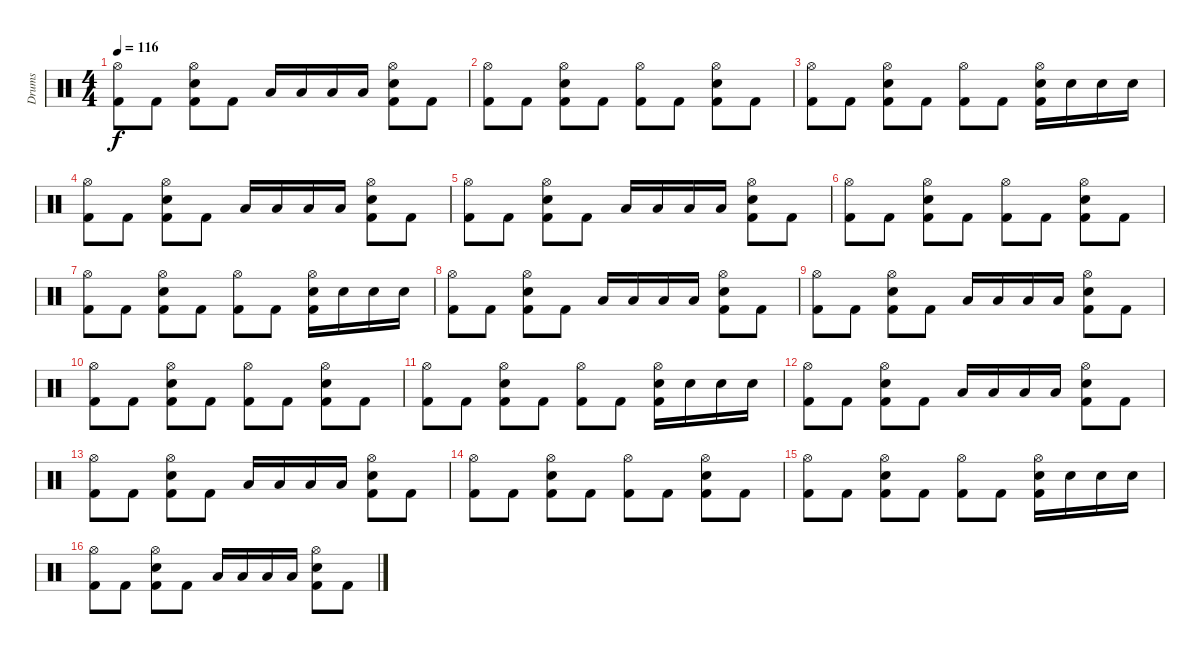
\track ("Drums" "Drums") {instrument percussion}
\staff {score}
\articulation defaults
\ts (4 4)
\tempo 116
\clef neutral
\ks c
("Hi-Hat (open)" "Kick (hit) 2").8{dy f} "Kick (hit) 2".8 ("Hi-Hat (open)" "Electric Snare (hit)" "Kick (hit) 2").8 "Kick (hit) 2".8 "Low Floor Tom (hit)".16 "Low Floor Tom (hit)".16 "Low Floor Tom (hit)".16 "Low Floor Tom (hit)".16 ("Hi-Hat (open)" "Electric Snare (hit)" "Kick (hit) 2").8 "Kick (hit) 2".8 |
("Hi-Hat (open)" "Kick (hit) 2").8 "Kick (hit) 2".8 ("Hi-Hat (open)" "Electric Snare (hit)" "Kick (hit) 2").8 "Kick (hit) 2".8 ("Hi-Hat (open)" "Kick (hit) 2").8 "Kick (hit) 2".8 ("Hi-Hat (open)" "Electric Snare (hit)" "Kick (hit) 2").8 "Kick (hit) 2".8 |
("Hi-Hat (open)" "Kick (hit) 2").8 "Kick (hit) 2".8 ("Hi-Hat (open)" "Electric Snare (hit)" "Kick (hit) 2").8 "Kick (hit) 2".8 ("Hi-Hat (open)" "Kick (hit) 2").8 "Kick (hit) 2".8 ("Hi-Hat (open)" "Electric Snare (hit)" "Kick (hit) 2").16 "Electric Snare (hit)".16 "Electric Snare (hit)".16 "Electric Snare (hit)".16 |
("Hi-Hat (open)" "Kick (hit) 2").8 "Kick (hit) 2".8 ("Hi-Hat (open)" "Electric Snare (hit)" "Kick (hit) 2").8 "Kick (hit) 2".8 "Low Floor Tom (hit)".16 "Low Floor Tom (hit)".16 "Low Floor Tom (hit)".16 "Low Floor Tom (hit)".16 ("Hi-Hat (open)" "Electric Snare (hit)" "Kick (hit) 2").8 "Kick (hit) 2".8 |
("Hi-Hat (open)" "Kick (hit) 2").8 "Kick (hit) 2".8 ("Hi-Hat (open)" "Electric Snare (hit)" "Kick (hit) 2").8 "Kick (hit) 2".8 "Low Floor Tom (hit)".16 "Low Floor Tom (hit)".16 "Low Floor Tom (hit)".16 "Low Floor Tom (hit)".16 ("Hi-Hat (open)" "Electric Snare (hit)" "Kick (hit) 2").8 "Kick (hit) 2".8 |
("Hi-Hat (open)" "Kick (hit) 2").8 "Kick (hit) 2".8 ("Hi-Hat (open)" "Electric Snare (hit)" "Kick (hit) 2").8 "Kick (hit) 2".8 ("Hi-Hat (open)" "Kick (hit) 2").8 "Kick (hit) 2".8 ("Hi-Hat (open)" "Electric Snare (hit)" "Kick (hit) 2").8 "Kick (hit) 2".8 |
("Hi-Hat (open)" "Kick (hit) 2").8 "Kick (hit) 2".8 ("Hi-Hat (open)" "Electric Snare (hit)" "Kick (hit) 2").8 "Kick (hit) 2".8 ("Hi-Hat (open)" "Kick (hit) 2").8 "Kick (hit) 2".8 ("Hi-Hat (open)" "Electric Snare (hit)" "Kick (hit) 2").16 "Electric Snare (hit)".16 "Electric Snare (hit)".16 "Electric Snare (hit)".16 |
("Hi-Hat (open)" "Kick (hit) 2").8 "Kick (hit) 2".8 ("Hi-Hat (open)" "Electric Snare (hit)" "Kick (hit) 2").8 "Kick (hit) 2".8 "Low Floor Tom (hit)".16 "Low Floor Tom (hit)".16 "Low Floor Tom (hit)".16 "Low Floor Tom (hit)".16 ("Hi-Hat (open)" "Electric Snare (hit)" "Kick (hit) 2").8 "Kick (hit) 2".8 |
("Hi-Hat (open)" "Kick (hit) 2").8 "Kick (hit) 2".8 ("Hi-Hat (open)" "Electric Snare (hit)" "Kick (hit) 2").8 "Kick (hit) 2".8 "Low Floor Tom (hit)".16 "Low Floor Tom (hit)".16 "Low Floor Tom (hit)".16 "Low Floor Tom (hit)".16 ("Hi-Hat (open)" "Electric Snare (hit)" "Kick (hit) 2").8 "Kick (hit) 2".8 |
("Hi-Hat (open)" "Kick (hit) 2").8 "Kick (hit) 2".8 ("Hi-Hat (open)" "Electric Snare (hit)" "Kick (hit) 2").8 "Kick (hit) 2".8 ("Hi-Hat (open)" "Kick (hit) 2").8 "Kick (hit) 2".8 ("Hi-Hat (open)" "Electric Snare (hit)" "Kick (hit) 2").8 "Kick (hit) 2".8 |
("Hi-Hat (open)" "Kick (hit) 2").8 "Kick (hit) 2".8 ("Hi-Hat (open)" "Electric Snare (hit)" "Kick (hit) 2").8 "Kick (hit) 2".8 ("Hi-Hat (open)" "Kick (hit) 2").8 "Kick (hit) 2".8 ("Hi-Hat (open)" "Electric Snare (hit)" "Kick (hit) 2").16 "Electric Snare (hit)".16 "Electric Snare (hit)".16 "Electric Snare (hit)".16 |
("Hi-Hat (open)" "Kick (hit) 2").8 "Kick (hit) 2".8 ("Hi-Hat (open)" "Electric Snare (hit)" "Kick (hit) 2").8 "Kick (hit) 2".8 "Low Floor Tom (hit)".16 "Low Floor Tom (hit)".16 "Low Floor Tom (hit)".16 "Low Floor Tom (hit)".16 ("Hi-Hat (open)" "Electric Snare (hit)" "Kick (hit) 2").8 "Kick (hit) 2".8 |
("Hi-Hat (open)" "Kick (hit) 2").8 "Kick (hit) 2".8 ("Hi-Hat (open)" "Electric Snare (hit)" "Kick (hit) 2").8 "Kick (hit) 2".8 "Low Floor Tom (hit)".16 "Low Floor Tom (hit)".16 "Low Floor Tom (hit)".16 "Low Floor Tom (hit)".16 ("Hi-Hat (open)" "Electric Snare (hit)" "Kick (hit) 2").8 "Kick (hit) 2".8 |
("Hi-Hat (open)" "Kick (hit) 2").8 "Kick (hit) 2".8 ("Hi-Hat (open)" "Electric Snare (hit)" "Kick (hit) 2").8 "Kick (hit) 2".8 ("Hi-Hat (open)" "Kick (hit) 2").8 "Kick (hit) 2".8 ("Hi-Hat (open)" "Electric Snare (hit)" "Kick (hit) 2").8 "Kick (hit) 2".8 |
("Hi-Hat (open)" "Kick (hit) 2").8 "Kick (hit) 2".8 ("Hi-Hat (open)" "Electric Snare (hit)" "Kick (hit) 2").8 "Kick (hit) 2".8 ("Hi-Hat (open)" "Kick (hit) 2").8 "Kick (hit) 2".8 ("Hi-Hat (open)" "Electric Snare (hit)" "Kick (hit) 2").16 "Electric Snare (hit)".16 "Electric Snare (hit)".16 "Electric Snare (hit)".16 |
("Hi-Hat (open)" "Kick (hit) 2").8 "Kick (hit) 2".8 ("Hi-Hat (open)" "Electric Snare (hit)" "Kick (hit) 2").8 "Kick (hit) 2".8 "Low Floor Tom (hit)".16 "Low Floor Tom (hit)".16 "Low Floor Tom (hit)".16 "Low Floor Tom (hit)".16 ("Hi-Hat (open)" "Electric Snare (hit)" "Kick (hit) 2").8 "Kick (hit) 2".8
